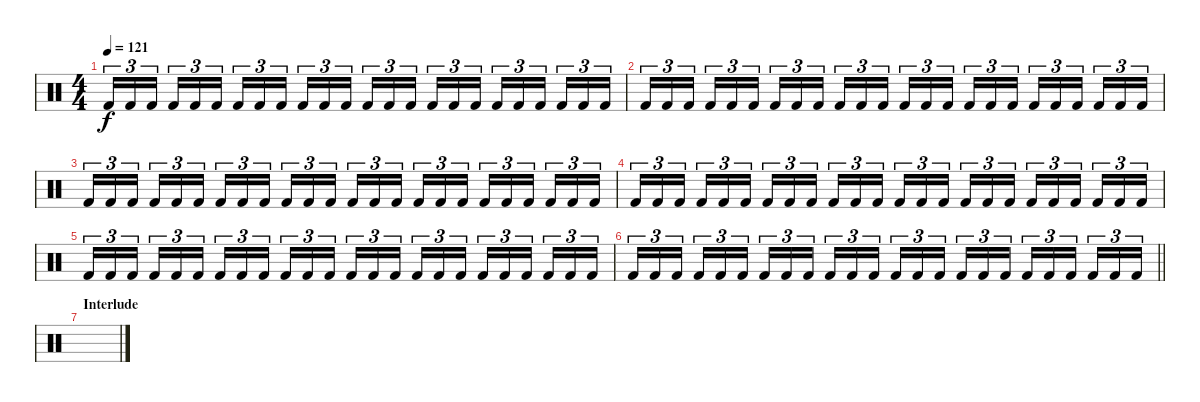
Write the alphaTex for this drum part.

\track "" {instrument percussion}
\staff {score}
\articulation defaults
\ts (4 4)
\tempo 121
\clef neutral
\ks c "Kick (hit) 2".16{tu (3 2) dy f} "Kick (hit) 2".16{tu (3 2)} "Kick (hit) 2".16{tu (3 2) beam splitsecondary} "Kick (hit) 2".16{tu (3 2)} "Kick (hit) 2".16{tu (3 2)} "Kick (hit) 2".16{tu (3 2)} "Kick (hit) 2".16{tu (3 2)} "Kick (hit) 2".16{tu (3 2)} "Kick (hit) 2".16{tu (3 2) beam splitsecondary} "Kick (hit) 2".16{tu (3 2)} "Kick (hit) 2".16{tu (3 2)} "Kick (hit) 2".16{tu (3 2)} "Kick (hit) 2".16{tu (3 2)} "Kick (hit) 2".16{tu (3 2)} "Kick (hit) 2".16{tu (3 2) beam splitsecondary} "Kick (hit) 2".16{tu (3 2)} "Kick (hit) 2".16{tu (3 2)} "Kick (hit) 2".16{tu (3 2)} "Kick (hit) 2".16{tu (3 2)} "Kick (hit) 2".16{tu (3 2)} "Kick (hit) 2".16{tu (3 2) beam splitsecondary} "Kick (hit) 2".16{tu (3 2)} "Kick (hit) 2".16{tu (3 2)} "Kick (hit) 2".16{tu (3 2)}
|
"Kick (hit) 2".16{tu (3 2)} "Kick (hit) 2".16{tu (3 2)} "Kick (hit) 2".16{tu (3 2) beam splitsecondary} "Kick (hit) 2".16{tu (3 2)} "Kick (hit) 2".16{tu (3 2)} "Kick (hit) 2".16{tu (3 2)} "Kick (hit) 2".16{tu (3 2)} "Kick (hit) 2".16{tu (3 2)} "Kick (hit) 2".16{tu (3 2) beam splitsecondary} "Kick (hit) 2".16{tu (3 2)} "Kick (hit) 2".16{tu (3 2)} "Kick (hit) 2".16{tu (3 2)} "Kick (hit) 2".16{tu (3 2)} "Kick (hit) 2".16{tu (3 2)} "Kick (hit) 2".16{tu (3 2) beam splitsecondary} "Kick (hit) 2".16{tu (3 2)} "Kick (hit) 2".16{tu (3 2)} "Kick (hit) 2".16{tu (3 2)} "Kick (hit) 2".16{tu (3 2)} "Kick (hit) 2".16{tu (3 2)} "Kick (hit) 2".16{tu (3 2) beam splitsecondary} "Kick (hit) 2".16{tu (3 2)} "Kick (hit) 2".16{tu (3 2)} "Kick (hit) 2".16{tu (3 2)} |
"Kick (hit) 2".16{tu (3 2)} "Kick (hit) 2".16{tu (3 2)} "Kick (hit) 2".16{tu (3 2) beam splitsecondary} "Kick (hit) 2".16{tu (3 2)} "Kick (hit) 2".16{tu (3 2)} "Kick (hit) 2".16{tu (3 2)} "Kick (hit) 2".16{tu (3 2)} "Kick (hit) 2".16{tu (3 2)} "Kick (hit) 2".16{tu (3 2) beam splitsecondary} "Kick (hit) 2".16{tu (3 2)} "Kick (hit) 2".16{tu (3 2)} "Kick (hit) 2".16{tu (3 2)} "Kick (hit) 2".16{tu (3 2)} "Kick (hit) 2".16{tu (3 2)} "Kick (hit) 2".16{tu (3 2) beam splitsecondary} "Kick (hit) 2".16{tu (3 2)} "Kick (hit) 2".16{tu (3 2)} "Kick (hit) 2".16{tu (3 2)} "Kick (hit) 2".16{tu (3 2)} "Kick (hit) 2".16{tu (3 2)} "Kick (hit) 2".16{tu (3 2) beam splitsecondary} "Kick (hit) 2".16{tu (3 2)} "Kick (hit) 2".16{tu (3 2)} "Kick (hit) 2".16{tu (3 2)} |
"Kick (hit) 2".16{tu (3 2)} "Kick (hit) 2".16{tu (3 2)} "Kick (hit) 2".16{tu (3 2) beam splitsecondary} "Kick (hit) 2".16{tu (3 2)} "Kick (hit) 2".16{tu (3 2)} "Kick (hit) 2".16{tu (3 2)} "Kick (hit) 2".16{tu (3 2)} "Kick (hit) 2".16{tu (3 2)} "Kick (hit) 2".16{tu (3 2) beam splitsecondary} "Kick (hit) 2".16{tu (3 2)} "Kick (hit) 2".16{tu (3 2)} "Kick (hit) 2".16{tu (3 2)} "Kick (hit) 2".16{tu (3 2)} "Kick (hit) 2".16{tu (3 2)} "Kick (hit) 2".16{tu (3 2) beam splitsecondary} "Kick (hit) 2".16{tu (3 2)} "Kick (hit) 2".16{tu (3 2)} "Kick (hit) 2".16{tu (3 2)} "Kick (hit) 2".16{tu (3 2)} "Kick (hit) 2".16{tu (3 2)} "Kick (hit) 2".16{tu (3 2) beam splitsecondary} "Kick (hit) 2".16{tu (3 2)} "Kick (hit) 2".16{tu (3 2)} "Kick (hit) 2".16{tu (3 2)} |
"Kick (hit) 2".16{tu (3 2)} "Kick (hit) 2".16{tu (3 2)} "Kick (hit) 2".16{tu (3 2) beam splitsecondary} "Kick (hit) 2".16{tu (3 2)} "Kick (hit) 2".16{tu (3 2)} "Kick (hit) 2".16{tu (3 2)} "Kick (hit) 2".16{tu (3 2)} "Kick (hit) 2".16{tu (3 2)} "Kick (hit) 2".16{tu (3 2) beam splitsecondary} "Kick (hit) 2".16{tu (3 2)} "Kick (hit) 2".16{tu (3 2)} "Kick (hit) 2".16{tu (3 2)} "Kick (hit) 2".16{tu (3 2)} "Kick (hit) 2".16{tu (3 2)} "Kick (hit) 2".16{tu (3 2) beam splitsecondary} "Kick (hit) 2".16{tu (3 2)} "Kick (hit) 2".16{tu (3 2)} "Kick (hit) 2".16{tu (3 2)} "Kick (hit) 2".16{tu (3 2)} "Kick (hit) 2".16{tu (3 2)} "Kick (hit) 2".16{tu (3 2) beam splitsecondary} "Kick (hit) 2".16{tu (3 2)} "Kick (hit) 2".16{tu (3 2)} "Kick (hit) 2".16{tu (3 2)} |
\barLineRight lightlight "Kick (hit) 2".16{tu (3 2)} "Kick (hit) 2".16{tu (3 2)} "Kick (hit) 2".16{tu (3 2) beam splitsecondary} "Kick (hit) 2".16{tu (3 2)} "Kick (hit) 2".16{tu (3 2)} "Kick (hit) 2".16{tu (3 2)} "Kick (hit) 2".16{tu (3 2)} "Kick (hit) 2".16{tu (3 2)} "Kick (hit) 2".16{tu (3 2) beam splitsecondary} "Kick (hit) 2".16{tu (3 2)} "Kick (hit) 2".16{tu (3 2)} "Kick (hit) 2".16{tu (3 2)} "Kick (hit) 2".16{tu (3 2)} "Kick (hit) 2".16{tu (3 2)} "Kick (hit) 2".16{tu (3 2) beam splitsecondary} "Kick (hit) 2".16{tu (3 2)} "Kick (hit) 2".16{tu (3 2)} "Kick (hit) 2".16{tu (3 2)} "Kick (hit) 2".16{tu (3 2)} "Kick (hit) 2".16{tu (3 2)} "Kick (hit) 2".16{tu (3 2) beam splitsecondary} "Kick (hit) 2".16{tu (3 2)} "Kick (hit) 2".16{tu (3 2)} "Kick (hit) 2".16{tu (3 2)}
|
\section ("" "Interlude")
